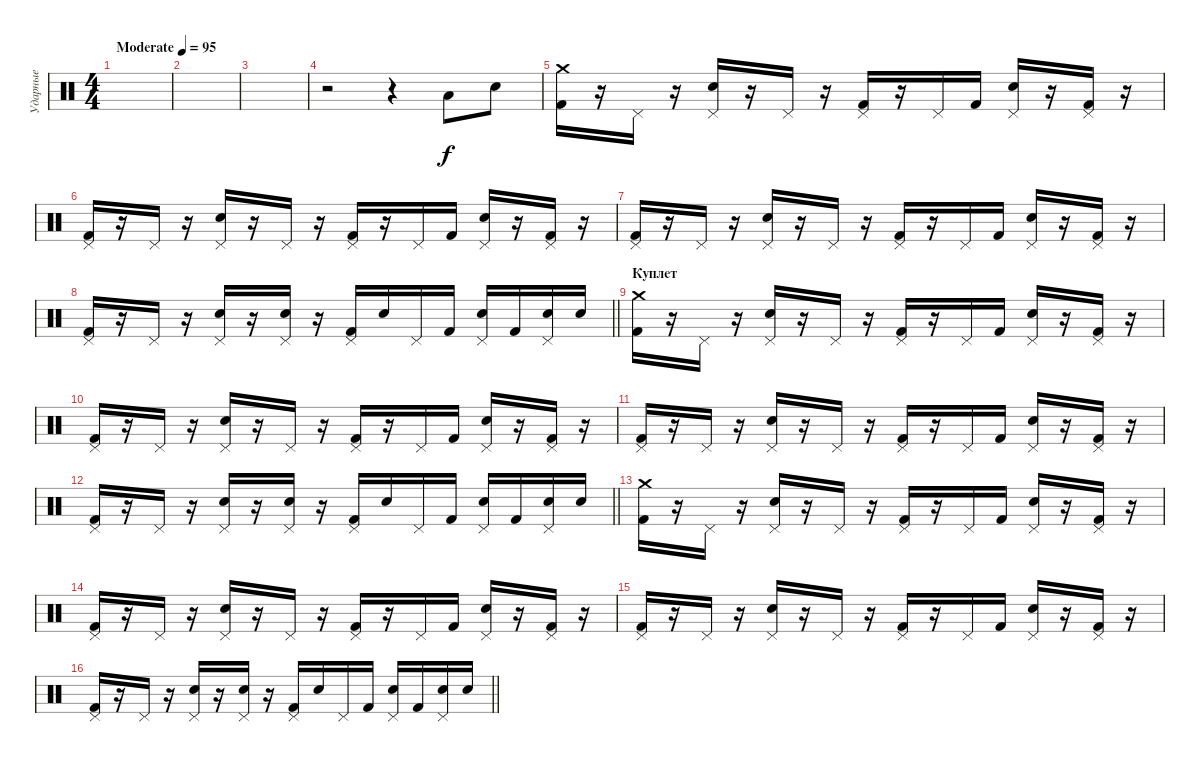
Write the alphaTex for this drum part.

\track ("Ударные" "Ударные") {instrument percussion}
\staff {score}
\articulation defaults
\ts (4 4)
\tempo (95 "Moderate")
\clef neutral
\ks c
|
|
|
r.2 r.4 "Low Tom (hit)".8 "Electric Snare (hit)".8 |
("Crash medium (hit)" "Kick (hit) 2").16 r.16 "Pedal Hi-Hat (hit)".16 r.16 ("Pedal Hi-Hat (hit)" "Electric Snare (hit)").16 r.16 "Pedal Hi-Hat (hit)".16 r.16 ("Pedal Hi-Hat (hit)" "Kick (hit) 2").16 r.16 "Pedal Hi-Hat (hit)".16 "Kick (hit) 2".16 ("Pedal Hi-Hat (hit)" "Electric Snare (hit)").16 r.16 ("Pedal Hi-Hat (hit)" "Kick (hit) 2").16 r.16 |
("Pedal Hi-Hat (hit)" "Kick (hit) 2").16 r.16 "Pedal Hi-Hat (hit)".16 r.16 ("Pedal Hi-Hat (hit)" "Electric Snare (hit)").16 r.16 "Pedal Hi-Hat (hit)".16 r.16 ("Pedal Hi-Hat (hit)" "Kick (hit) 2").16 r.16 "Pedal Hi-Hat (hit)".16 "Kick (hit) 2".16 ("Pedal Hi-Hat (hit)" "Electric Snare (hit)").16 r.16 ("Pedal Hi-Hat (hit)" "Kick (hit) 2").16 r.16 |
("Pedal Hi-Hat (hit)" "Kick (hit) 2").16 r.16 "Pedal Hi-Hat (hit)".16 r.16 ("Pedal Hi-Hat (hit)" "Electric Snare (hit)").16 r.16 "Pedal Hi-Hat (hit)".16 r.16 ("Pedal Hi-Hat (hit)" "Kick (hit) 2").16 r.16 "Pedal Hi-Hat (hit)".16 "Kick (hit) 2".16 ("Pedal Hi-Hat (hit)" "Electric Snare (hit)").16 r.16 ("Pedal Hi-Hat (hit)" "Kick (hit) 2").16 r.16 |
\barLineRight lightlight
("Pedal Hi-Hat (hit)" "Kick (hit) 2").16 r.16 "Pedal Hi-Hat (hit)".16 r.16 ("Pedal Hi-Hat (hit)" "Electric Snare (hit)").16 r.16 ("Pedal Hi-Hat (hit)" "Electric Snare (hit)").16 r.16 ("Pedal Hi-Hat (hit)" "Kick (hit) 2").16 "Electric Snare (hit)".16 "Pedal Hi-Hat (hit)".16 "Kick (hit) 2".16 ("Pedal Hi-Hat (hit)" "Electric Snare (hit)").16 "Kick (hit) 2".16 ("Pedal Hi-Hat (hit)" "Electric Snare (hit)").16 "Electric Snare (hit)".16 |
\section ("" "Куплет")
("Crash medium (hit)" "Kick (hit) 2").16 r.16 "Pedal Hi-Hat (hit)".16 r.16 ("Pedal Hi-Hat (hit)" "Electric Snare (hit)").16 r.16 "Pedal Hi-Hat (hit)".16 r.16 ("Pedal Hi-Hat (hit)" "Kick (hit) 2").16 r.16 "Pedal Hi-Hat (hit)".16 "Kick (hit) 2".16 ("Pedal Hi-Hat (hit)" "Electric Snare (hit)").16 r.16 ("Pedal Hi-Hat (hit)" "Kick (hit) 2").16 r.16 |
("Pedal Hi-Hat (hit)" "Kick (hit) 2").16 r.16 "Pedal Hi-Hat (hit)".16 r.16 ("Pedal Hi-Hat (hit)" "Electric Snare (hit)").16 r.16 "Pedal Hi-Hat (hit)".16 r.16 ("Pedal Hi-Hat (hit)" "Kick (hit) 2").16 r.16 "Pedal Hi-Hat (hit)".16 "Kick (hit) 2".16 ("Pedal Hi-Hat (hit)" "Electric Snare (hit)").16 r.16 ("Pedal Hi-Hat (hit)" "Kick (hit) 2").16 r.16 |
("Pedal Hi-Hat (hit)" "Kick (hit) 2").16 r.16 "Pedal Hi-Hat (hit)".16 r.16 ("Pedal Hi-Hat (hit)" "Electric Snare (hit)").16 r.16 "Pedal Hi-Hat (hit)".16 r.16 ("Pedal Hi-Hat (hit)" "Kick (hit) 2").16 r.16 "Pedal Hi-Hat (hit)".16 "Kick (hit) 2".16 ("Pedal Hi-Hat (hit)" "Electric Snare (hit)").16 r.16 ("Pedal Hi-Hat (hit)" "Kick (hit) 2").16 r.16 |
\barLineRight lightlight
("Pedal Hi-Hat (hit)" "Kick (hit) 2").16 r.16 "Pedal Hi-Hat (hit)".16 r.16 ("Pedal Hi-Hat (hit)" "Electric Snare (hit)").16 r.16 ("Pedal Hi-Hat (hit)" "Electric Snare (hit)").16 r.16 ("Pedal Hi-Hat (hit)" "Kick (hit) 2").16 "Electric Snare (hit)".16 "Pedal Hi-Hat (hit)".16 "Kick (hit) 2".16 ("Pedal Hi-Hat (hit)" "Electric Snare (hit)").16 "Kick (hit) 2".16 ("Pedal Hi-Hat (hit)" "Electric Snare (hit)").16 "Electric Snare (hit)".16 |
("Crash medium (hit)" "Kick (hit) 2").16 r.16 "Pedal Hi-Hat (hit)".16 r.16 ("Pedal Hi-Hat (hit)" "Electric Snare (hit)").16 r.16 "Pedal Hi-Hat (hit)".16 r.16 ("Pedal Hi-Hat (hit)" "Kick (hit) 2").16 r.16 "Pedal Hi-Hat (hit)".16 "Kick (hit) 2".16 ("Pedal Hi-Hat (hit)" "Electric Snare (hit)").16 r.16 ("Pedal Hi-Hat (hit)" "Kick (hit) 2").16 r.16 |
("Pedal Hi-Hat (hit)" "Kick (hit) 2").16 r.16 "Pedal Hi-Hat (hit)".16 r.16 ("Pedal Hi-Hat (hit)" "Electric Snare (hit)").16 r.16 "Pedal Hi-Hat (hit)".16 r.16 ("Pedal Hi-Hat (hit)" "Kick (hit) 2").16 r.16 "Pedal Hi-Hat (hit)".16 "Kick (hit) 2".16 ("Pedal Hi-Hat (hit)" "Electric Snare (hit)").16 r.16 ("Pedal Hi-Hat (hit)" "Kick (hit) 2").16 r.16 |
("Pedal Hi-Hat (hit)" "Kick (hit) 2").16 r.16 "Pedal Hi-Hat (hit)".16 r.16 ("Pedal Hi-Hat (hit)" "Electric Snare (hit)").16 r.16 "Pedal Hi-Hat (hit)".16 r.16 ("Pedal Hi-Hat (hit)" "Kick (hit) 2").16 r.16 "Pedal Hi-Hat (hit)".16 "Kick (hit) 2".16 ("Pedal Hi-Hat (hit)" "Electric Snare (hit)").16 r.16 ("Pedal Hi-Hat (hit)" "Kick (hit) 2").16 r.16 |
\barLineRight lightlight
("Pedal Hi-Hat (hit)" "Kick (hit) 2").16 r.16 "Pedal Hi-Hat (hit)".16 r.16 ("Pedal Hi-Hat (hit)" "Electric Snare (hit)").16 r.16 ("Pedal Hi-Hat (hit)" "Electric Snare (hit)").16 r.16 ("Pedal Hi-Hat (hit)" "Kick (hit) 2").16 "Electric Snare (hit)".16 "Pedal Hi-Hat (hit)".16 "Kick (hit) 2".16 ("Pedal Hi-Hat (hit)" "Electric Snare (hit)").16 "Kick (hit) 2".16 ("Pedal Hi-Hat (hit)" "Electric Snare (hit)").16 "Electric Snare (hit)".16
